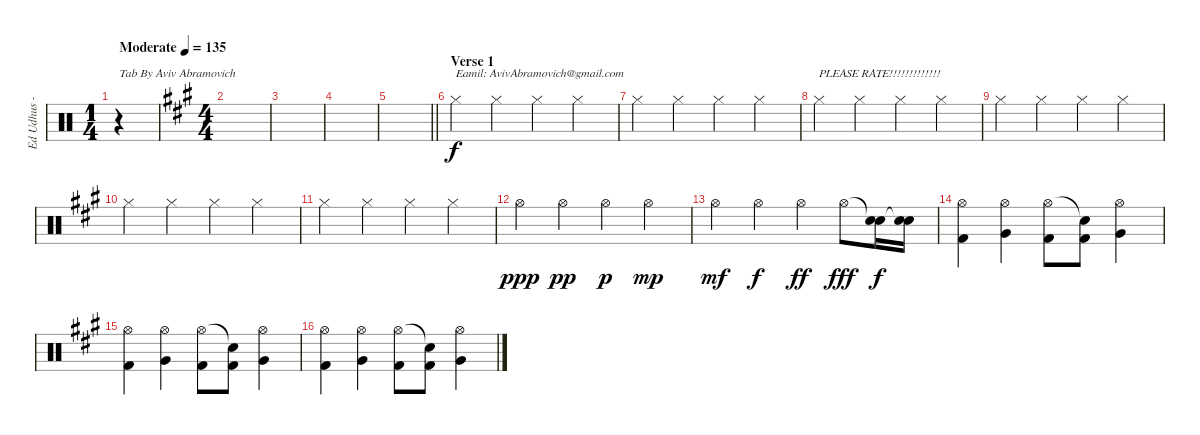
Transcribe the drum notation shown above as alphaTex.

\track ("Ed Udhus - Drums" "Ed Udhus -") {instrument percussion bank 127}
\staff {score}
\articulation defaults
\ts (1 4)
\tempo (135 "Moderate")
\clef neutral
\ks c
r.4{txt "Tab By Aviv Abramovich" dy f} |
\ts (4 4)
\ks a
|
|
|
\barLineRight lightlight
|
\section ("" "Verse 1")
"Hi-Hat (closed)".4{txt "Eamil: AvivAbramovich@gmail.com"} "Hi-Hat (closed)".4 "Hi-Hat (closed)".4 "Hi-Hat (closed)".4 |
"Hi-Hat (closed)".4 "Hi-Hat (closed)".4 "Hi-Hat (closed)".4 "Hi-Hat (closed)".4 |
"Hi-Hat (closed)".4{txt "PLEASE RATE!!!!!!!!!!!!!"} "Hi-Hat (closed)".4 "Hi-Hat (closed)".4 "Hi-Hat (closed)".4 |
"Hi-Hat (closed)".4 "Hi-Hat (closed)".4 "Hi-Hat (closed)".4 "Hi-Hat (closed)".4 |
"Hi-Hat (closed)".4 "Hi-Hat (closed)".4 "Hi-Hat (closed)".4 "Hi-Hat (closed)".4 |
"Hi-Hat (closed)".4 "Hi-Hat (closed)".4 "Hi-Hat (closed)".4 "Hi-Hat (closed)".4 |
"Hi-Hat (open)".4{dy ppp} "Hi-Hat (open)".4{dy pp} "Hi-Hat (open)".4{dy p} "Hi-Hat (open)".4{dy mp} |
"Hi-Hat (open)".4{dy mf} "Hi-Hat (open)".4{dy f} "Hi-Hat (open)".4{dy ff} "Hi-Hat (open)".8{dy fff} ("Snare (hit)"{t} "Snare (hit) 2").16{dy f} ("Snare (hit)"{t} "Snare (hit) 2").16 |
("Hi-Hat (open)" "Kick (hit) 2").4 ("Hi-Hat (open)" "Very Low Tom (hit)").4 ("Hi-Hat (open)" "Kick (hit) 2").8 ("Snare (hit)"{t} "Kick (hit) 2").8 ("Hi-Hat (open)" "Very Low Tom (hit)").4 |
("Hi-Hat (open)" "Kick (hit) 2").4 ("Hi-Hat (open)" "Very Low Tom (hit)").4 ("Hi-Hat (open)" "Kick (hit) 2").8 ("Snare (hit)"{t} "Kick (hit) 2").8 ("Hi-Hat (open)" "Very Low Tom (hit)").4 |
("Hi-Hat (open)" "Kick (hit) 2").4 ("Hi-Hat (open)" "Very Low Tom (hit)").4 ("Hi-Hat (open)" "Kick (hit) 2").8 ("Snare (hit)"{t} "Kick (hit) 2").8 ("Hi-Hat (open)" "Very Low Tom (hit)").4
